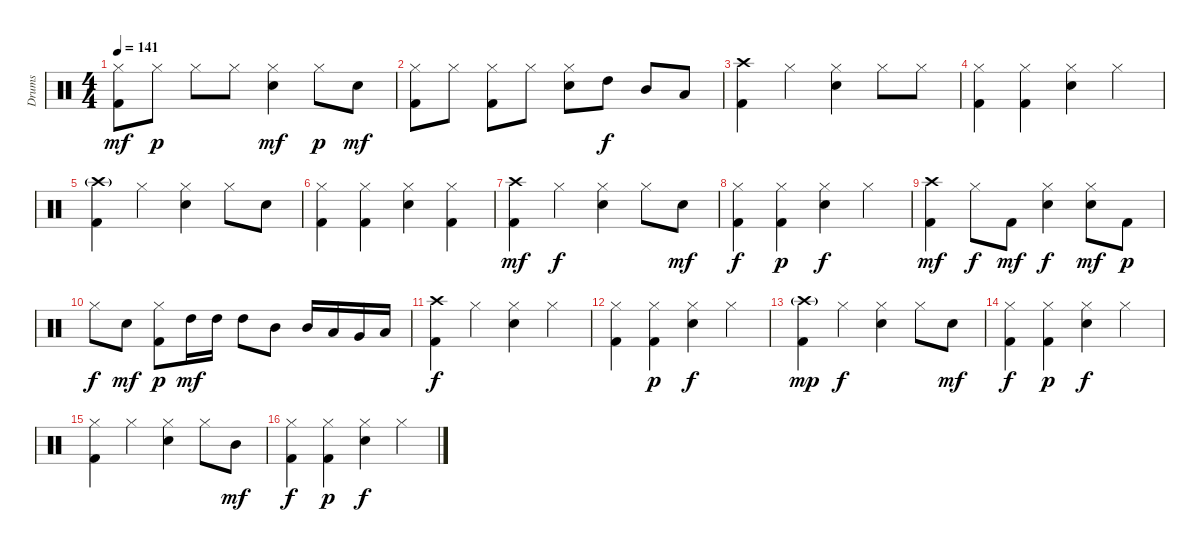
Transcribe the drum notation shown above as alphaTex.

\track ("Drums" "Drums") {instrument percussion}
\staff {score}
\articulation defaults
\ts (4 4)
\tempo 141
\clef neutral
\ks c
("Hi-Hat (closed)" "Kick (hit) 2").8{dy mf} "Hi-Hat (closed)".8{dy p} "Hi-Hat (closed)".8 "Hi-Hat (closed)".8 ("Hi-Hat (closed)" "Electric Snare (hit)").4{dy mf} "Hi-Hat (closed)".8{dy p} "Electric Snare (hit)".8{dy mf} |
("Hi-Hat (closed)" "Kick (hit) 2").8 "Hi-Hat (closed)".8 ("Hi-Hat (closed)" "Kick (hit) 2").8 "Hi-Hat (closed)".8 ("Hi-Hat (closed)" "Electric Snare (hit)").8 "High Tom (hit)".8{dy f} "Mid Tom (hit)".8 "Low Tom (hit)".8 |
("Crash high (hit)" "Kick (hit) 2").4 "Hi-Hat (closed)".4 ("Hi-Hat (closed)" "Electric Snare (hit)").4 "Hi-Hat (closed)".8 "Hi-Hat (closed)".8 |
("Hi-Hat (closed)" "Kick (hit) 2").4 ("Hi-Hat (closed)" "Kick (hit) 2").4 ("Hi-Hat (closed)" "Electric Snare (hit)").4 "Hi-Hat (closed)".4 |
("Crash high (hit)"{g} "Kick (hit) 2").4 "Hi-Hat (closed)".4 ("Hi-Hat (closed)" "Electric Snare (hit)").4 "Hi-Hat (closed)".8 "Electric Snare (hit)".8 |
("Hi-Hat (closed)" "Kick (hit) 2").4 ("Hi-Hat (closed)" "Kick (hit) 2").4 ("Hi-Hat (closed)" "Electric Snare (hit)").4 ("Hi-Hat (closed)" "Kick (hit) 2").4 |
("Crash high (hit)" "Kick (hit) 2").4{dy mf} "Hi-Hat (closed)".4{dy f} ("Hi-Hat (closed)" "Electric Snare (hit)").4 "Hi-Hat (closed)".8 "Electric Snare (hit)".8{dy mf} |
("Hi-Hat (closed)" "Kick (hit) 2").4{dy f} ("Hi-Hat (closed)" "Kick (hit) 2").4{dy p} ("Hi-Hat (closed)" "Electric Snare (hit)").4{dy f} "Hi-Hat (closed)".4 |
("Crash high (hit)" "Kick (hit) 2").4{dy mf} "Hi-Hat (closed)".8{dy f} "Kick (hit) 2".8{dy mf} ("Hi-Hat (closed)" "Electric Snare (hit)").4{dy f} ("Hi-Hat (closed)" "Electric Snare (hit)").8{dy mf} "Kick (hit) 2".8{dy p} |
"Hi-Hat (closed)".8{dy f} "Electric Snare (hit)".8{dy mf} ("Hi-Hat (closed)" "Kick (hit) 2").8{dy p} "High Tom (hit)".16{dy mf} "High Tom (hit)".16 "High Tom (hit)".8 "Mid Tom (hit)".8 "Mid Tom (hit)".16 "Low Tom (hit)".16 "Very Low Tom (hit)".16 "Low Floor Tom (hit)".16 |
("Crash high (hit)" "Kick (hit) 2").4{dy f} "Hi-Hat (closed)".4 ("Hi-Hat (closed)" "Electric Snare (hit)").4 "Hi-Hat (closed)".4 |
("Hi-Hat (closed)" "Kick (hit) 2").4 ("Hi-Hat (closed)" "Kick (hit) 2").4{dy p} ("Hi-Hat (closed)" "Electric Snare (hit)").4{dy f} "Hi-Hat (closed)".4 |
("Crash high (hit)"{g} "Kick (hit) 2").4{dy mp} "Hi-Hat (closed)".4{dy f} ("Hi-Hat (closed)" "Electric Snare (hit)").4 "Hi-Hat (closed)".8 "Electric Snare (hit)".8{dy mf} |
("Hi-Hat (closed)" "Kick (hit) 2").4{dy f} ("Hi-Hat (closed)" "Kick (hit) 2").4{dy p} ("Hi-Hat (closed)" "Electric Snare (hit)").4{dy f} "Hi-Hat (closed)".4 |
("Hi-Hat (closed)" "Kick (hit) 2").4 "Hi-Hat (closed)".4 ("Hi-Hat (closed)" "Electric Snare (hit)").4 "Hi-Hat (closed)".8 "Mid Tom (hit)".8{dy mf} |
("Hi-Hat (closed)" "Kick (hit) 2").4{dy f} ("Hi-Hat (closed)" "Kick (hit) 2").4{dy p} ("Hi-Hat (closed)" "Electric Snare (hit)").4{dy f} "Hi-Hat (closed)".4
